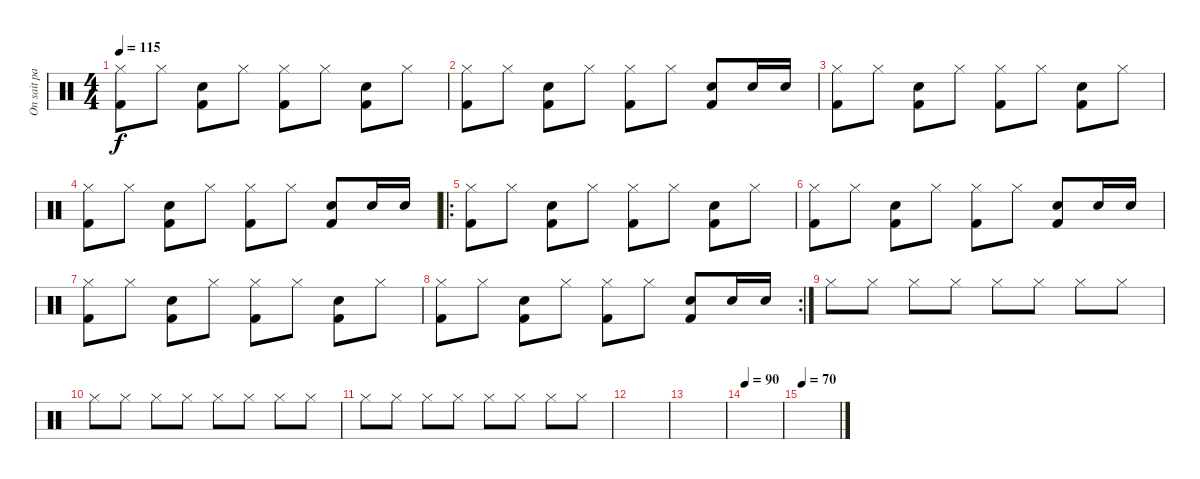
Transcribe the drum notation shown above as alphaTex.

\track ("On sait pas encore" "On sait pa") {instrument percussion}
\staff {score}
\articulation defaults
\ts (4 4)
\tempo 115
\clef neutral
\ks c
("Hi-Hat (closed)" "Kick (hit) 2").8{dy f} "Hi-Hat (closed)".8 ("Snare (hit) 2" "Kick (hit) 2").8 "Hi-Hat (closed)".8 ("Hi-Hat (closed)" "Kick (hit) 2").8 "Hi-Hat (closed)".8 ("Snare (hit) 2" "Kick (hit) 2").8 "Hi-Hat (closed)".8 |
("Hi-Hat (closed)" "Kick (hit) 2").8 "Hi-Hat (closed)".8 ("Snare (hit) 2" "Kick (hit) 2").8 "Hi-Hat (closed)".8 ("Hi-Hat (closed)" "Kick (hit) 2").8 "Hi-Hat (closed)".8 ("Snare (hit) 2" "Kick (hit) 2").8 "Snare (hit) 2".16 "Snare (hit) 2".16 |
("Hi-Hat (closed)" "Kick (hit) 2").8 "Hi-Hat (closed)".8 ("Snare (hit) 2" "Kick (hit) 2").8 "Hi-Hat (closed)".8 ("Hi-Hat (closed)" "Kick (hit) 2").8 "Hi-Hat (closed)".8 ("Snare (hit) 2" "Kick (hit) 2").8 "Hi-Hat (closed)".8 |
("Hi-Hat (closed)" "Kick (hit) 2").8 "Hi-Hat (closed)".8 ("Snare (hit) 2" "Kick (hit) 2").8 "Hi-Hat (closed)".8 ("Hi-Hat (closed)" "Kick (hit) 2").8 "Hi-Hat (closed)".8 ("Snare (hit) 2" "Kick (hit) 2").8 "Snare (hit) 2".16 "Snare (hit) 2".16 |
\ro
("Hi-Hat (closed)" "Kick (hit) 2").8 "Hi-Hat (closed)".8 ("Snare (hit) 2" "Kick (hit) 2").8 "Hi-Hat (closed)".8 ("Hi-Hat (closed)" "Kick (hit) 2").8 "Hi-Hat (closed)".8 ("Snare (hit) 2" "Kick (hit) 2").8 "Hi-Hat (closed)".8 |
("Hi-Hat (closed)" "Kick (hit) 2").8 "Hi-Hat (closed)".8 ("Snare (hit) 2" "Kick (hit) 2").8 "Hi-Hat (closed)".8 ("Hi-Hat (closed)" "Kick (hit) 2").8 "Hi-Hat (closed)".8 ("Snare (hit) 2" "Kick (hit) 2").8 "Snare (hit) 2".16 "Snare (hit) 2".16 |
("Hi-Hat (closed)" "Kick (hit) 2").8 "Hi-Hat (closed)".8 ("Snare (hit) 2" "Kick (hit) 2").8 "Hi-Hat (closed)".8 ("Hi-Hat (closed)" "Kick (hit) 2").8 "Hi-Hat (closed)".8 ("Snare (hit) 2" "Kick (hit) 2").8 "Hi-Hat (closed)".8 |
\rc 2
("Hi-Hat (closed)" "Kick (hit) 2").8 "Hi-Hat (closed)".8 ("Snare (hit) 2" "Kick (hit) 2").8 "Hi-Hat (closed)".8 ("Hi-Hat (closed)" "Kick (hit) 2").8 "Hi-Hat (closed)".8 ("Snare (hit) 2" "Kick (hit) 2").8 "Snare (hit) 2".16 "Snare (hit) 2".16 |
"Hi-Hat (closed)".8{volume 2} "Hi-Hat (closed)".8 "Hi-Hat (closed)".8 "Hi-Hat (closed)".8 "Hi-Hat (closed)".8 "Hi-Hat (closed)".8 "Hi-Hat (closed)".8 "Hi-Hat (closed)".8 |
"Hi-Hat (closed)".8 "Hi-Hat (closed)".8 "Hi-Hat (closed)".8 "Hi-Hat (closed)".8 "Hi-Hat (closed)".8 "Hi-Hat (closed)".8 "Hi-Hat (closed)".8 "Hi-Hat (closed)".8 |
"Hi-Hat (closed)".8 "Hi-Hat (closed)".8 "Hi-Hat (closed)".8 "Hi-Hat (closed)".8 "Hi-Hat (closed)".8 "Hi-Hat (closed)".8 "Hi-Hat (closed)".8 "Hi-Hat (closed)".8 |
|
|
\tempo 90
|
\tempo 70
